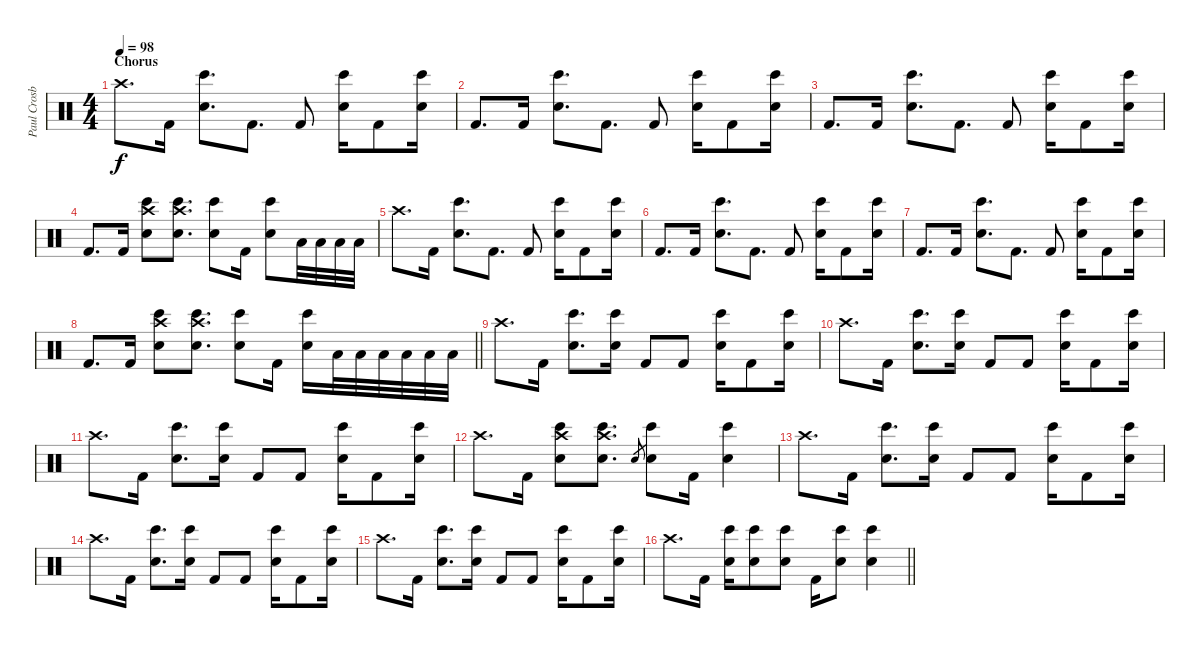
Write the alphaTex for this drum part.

\track ("Paul Crosby (Drums)" "Paul Crosb") {instrument percussion}
\staff {score}
\articulation defaults
\ts (4 4)
\section ("" "Chorus")
\tempo 98
\clef neutral
\ks c "Crash high (hit)".8{d dy f} "Kick (hit) 2".16
("Electric Snare (hit)" "Bongo High (hit)").8{d} "Kick (hit) 2".8{d} "Kick (hit) 2".8 ("Electric Snare (hit)" "Bongo High (hit)").16 "Kick (hit) 2".8 ("Electric Snare (hit)" "Bongo High (hit)").16 |
"Kick (hit) 2".8{d} "Kick (hit) 2".16 ("Electric Snare (hit)" "Bongo High (hit)").8{d} "Kick (hit) 2".8{d} "Kick (hit) 2".8 ("Electric Snare (hit)" "Bongo High (hit)").16 "Kick (hit) 2".8 ("Electric Snare (hit)" "Bongo High (hit)").16 |
"Kick (hit) 2".8{d} "Kick (hit) 2".16 ("Electric Snare (hit)" "Bongo High (hit)").8{d} "Kick (hit) 2".8{d} "Kick (hit) 2".8 ("Electric Snare (hit)" "Bongo High (hit)").16 "Kick (hit) 2".8 ("Electric Snare (hit)" "Bongo High (hit)").16 |
"Kick (hit) 2".8{d} "Kick (hit) 2".16 ("Crash high (hit)" "Electric Snare (hit)" "Bongo High (hit)").8 ("Crash high (hit)" "Electric Snare (hit)" "Bongo High (hit)").8{d} ("Electric Snare (hit)" "Bongo High (hit)").8 "Kick (hit) 2".16 ("Electric Snare (hit)" "Bongo High (hit)").8 "Low Tom (hit)".32 "Low Tom (hit)".32 "Low Tom (hit)".32 "Low Tom (hit)".32 |
"Crash high (hit)".8{d} "Kick (hit) 2".16 ("Electric Snare (hit)" "Bongo High (hit)").8{d} "Kick (hit) 2".8{d} "Kick (hit) 2".8 ("Electric Snare (hit)" "Bongo High (hit)").16 "Kick (hit) 2".8 ("Electric Snare (hit)" "Bongo High (hit)").16 |
"Kick (hit) 2".8{d} "Kick (hit) 2".16 ("Electric Snare (hit)" "Bongo High (hit)").8{d} "Kick (hit) 2".8{d} "Kick (hit) 2".8 ("Electric Snare (hit)" "Bongo High (hit)").16 "Kick (hit) 2".8 ("Electric Snare (hit)" "Bongo High (hit)").16 |
"Kick (hit) 2".8{d} "Kick (hit) 2".16 ("Electric Snare (hit)" "Bongo High (hit)").8{d} "Kick (hit) 2".8{d} "Kick (hit) 2".8 ("Electric Snare (hit)" "Bongo High (hit)").16 "Kick (hit) 2".8 ("Electric Snare (hit)" "Bongo High (hit)").16 |
\barLineRight lightlight "Kick (hit) 2".8{d} "Kick (hit) 2".16
("Crash high (hit)" "Electric Snare (hit)" "Bongo High (hit)").8 ("Crash high (hit)" "Electric Snare (hit)" "Bongo High (hit)").8{d} ("Electric Snare (hit)" "Bongo High (hit)").8 "Kick (hit) 2".16 ("Electric Snare (hit)" "Bongo High (hit)").16 "Low Tom (hit)".32 "Low Tom (hit)".32 "Low Tom (hit)".32 "Low Tom (hit)".32 "Low Tom (hit)".32 "Low Tom (hit)".32 |
"Crash high (hit)".8{d} "Kick (hit) 2".16 ("Electric Snare (hit)" "Bongo High (hit)").8{d} ("Electric Snare (hit)" "Bongo High (hit)").16 "Kick (hit) 2".8 "Kick (hit) 2".8 ("Electric Snare (hit)" "Bongo High (hit)").16 "Kick (hit) 2".8 ("Electric Snare (hit)" "Bongo High (hit)").16 |
"Crash high (hit)".8{d} "Kick (hit) 2".16 ("Electric Snare (hit)" "Bongo High (hit)").8{d} ("Electric Snare (hit)" "Bongo High (hit)").16 "Kick (hit) 2".8 "Kick (hit) 2".8 ("Electric Snare (hit)" "Bongo High (hit)").16 "Kick (hit) 2".8 ("Electric Snare (hit)" "Bongo High (hit)").16 |
"Crash high (hit)".8{d} "Kick (hit) 2".16 ("Electric Snare (hit)" "Bongo High (hit)").8{d} ("Electric Snare (hit)" "Bongo High (hit)").16 "Kick (hit) 2".8 "Kick (hit) 2".8 ("Electric Snare (hit)" "Bongo High (hit)").16 "Kick (hit) 2".8 ("Electric Snare (hit)" "Bongo High (hit)").16 |
"Crash high (hit)".8{d} "Kick (hit) 2".16 ("Crash high (hit)" "Electric Snare (hit)" "Bongo High (hit)").8 ("Crash high (hit)" "Electric Snare (hit)" "Bongo High (hit)").8{d} "Electric Snare (hit)".8{gr} ("Electric Snare (hit)" "Bongo High (hit)").8 "Kick (hit) 2".16 ("Electric Snare (hit)" "Bongo High (hit)").4 |
"Crash high (hit)".8{d} "Kick (hit) 2".16 ("Electric Snare (hit)" "Bongo High (hit)").8{d} ("Electric Snare (hit)" "Bongo High (hit)").16 "Kick (hit) 2".8 "Kick (hit) 2".8 ("Electric Snare (hit)" "Bongo High (hit)").16 "Kick (hit) 2".8 ("Electric Snare (hit)" "Bongo High (hit)").16 |
"Crash high (hit)".8{d} "Kick (hit) 2".16 ("Electric Snare (hit)" "Bongo High (hit)").8{d} ("Electric Snare (hit)" "Bongo High (hit)").16 "Kick (hit) 2".8 "Kick (hit) 2".8 ("Electric Snare (hit)" "Bongo High (hit)").16 "Kick (hit) 2".8 ("Electric Snare (hit)" "Bongo High (hit)").16 |
"Crash high (hit)".8{d} "Kick (hit) 2".16 ("Electric Snare (hit)" "Bongo High (hit)").8{d} ("Electric Snare (hit)" "Bongo High (hit)").16 "Kick (hit) 2".8 "Kick (hit) 2".8 ("Electric Snare (hit)" "Bongo High (hit)").16 "Kick (hit) 2".8 ("Electric Snare (hit)" "Bongo High (hit)").16 |
\barLineRight lightlight "Crash high (hit)".8{d} "Kick (hit) 2".16
("Electric Snare (hit)" "Bongo High (hit)").16 ("Electric Snare (hit)" "Bongo High (hit)").8 ("Electric Snare (hit)" "Bongo High (hit)").8 "Kick (hit) 2".16 ("Electric Snare (hit)" "Bongo High (hit)").8 ("Electric Snare (hit)" "Bongo High (hit)").4
